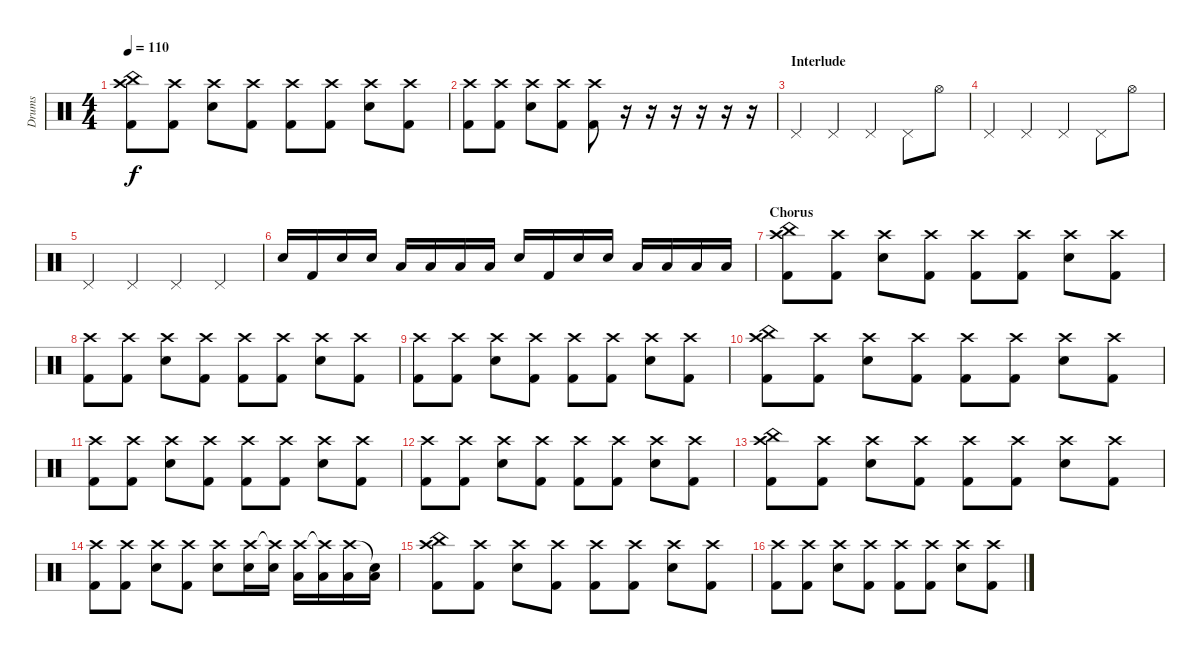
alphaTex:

\track ("Drums" "Drums") {instrument percussion}
\staff {score}
\articulation defaults
\ts (4 4)
\tempo 110
\clef neutral
\ks c
("Crash high (hit)" "China (hit)" "Kick (hit) 2").8{dy f} ("Crash high (hit)" "Kick (hit) 2").8 ("Crash high (hit)" "Snare (hit) 2").8 ("Crash high (hit)" "Kick (hit) 2").8 ("Crash high (hit)" "Kick (hit) 2").8 ("Crash high (hit)" "Kick (hit) 2").8 ("Crash high (hit)" "Snare (hit) 2").8 ("Crash high (hit)" "Kick (hit) 2").8 |
("Crash high (hit)" "Kick (hit) 2").8 ("Crash high (hit)" "Kick (hit) 2").8 ("Crash high (hit)" "Snare (hit) 2").8 ("Crash high (hit)" "Kick (hit) 2").8 ("Crash high (hit)" "Kick (hit) 2").8 r.16 r.16 r.16 r.16 r.16 r.16 |
\section ("" "Interlude")
"Pedal Hi-Hat (hit)".4 "Pedal Hi-Hat (hit)".4 "Pedal Hi-Hat (hit)".4 "Pedal Hi-Hat (hit)".8 "Hi-Hat (open)".8 |
"Pedal Hi-Hat (hit)".4 "Pedal Hi-Hat (hit)".4 "Pedal Hi-Hat (hit)".4 "Pedal Hi-Hat (hit)".8 "Hi-Hat (open)".8 |
"Pedal Hi-Hat (hit)".4 "Pedal Hi-Hat (hit)".4 "Pedal Hi-Hat (hit)".4 "Pedal Hi-Hat (hit)".4 |
"Snare (hit) 2".16 "Kick (hit) 2".16 "Snare (hit) 2".16 "Snare (hit) 2".16 "Low Floor Tom (hit)".16 "Low Floor Tom (hit)".16 "Low Floor Tom (hit)".16 "Low Floor Tom (hit)".16 "Snare (hit) 2".16 "Kick (hit) 2".16 "Snare (hit) 2".16 "Snare (hit) 2".16 "Low Floor Tom (hit)".16 "Low Floor Tom (hit)".16 "Low Floor Tom (hit)".16 "Low Floor Tom (hit)".16 |
\section ("" "Chorus")
("Crash high (hit)" "China (hit)" "Kick (hit) 2").8 ("Crash high (hit)" "Kick (hit) 2").8 ("Crash high (hit)" "Snare (hit) 2").8 ("Crash high (hit)" "Kick (hit) 2").8 ("Crash high (hit)" "Kick (hit) 2").8 ("Crash high (hit)" "Kick (hit) 2").8 ("Crash high (hit)" "Snare (hit) 2").8 ("Crash high (hit)" "Kick (hit) 2").8 |
("Crash high (hit)" "Kick (hit) 2").8 ("Crash high (hit)" "Kick (hit) 2").8 ("Crash high (hit)" "Snare (hit) 2").8 ("Crash high (hit)" "Kick (hit) 2").8 ("Crash high (hit)" "Kick (hit) 2").8 ("Crash high (hit)" "Kick (hit) 2").8 ("Crash high (hit)" "Snare (hit) 2").8 ("Crash high (hit)" "Kick (hit) 2").8 |
("Crash high (hit)" "Kick (hit) 2").8 ("Crash high (hit)" "Kick (hit) 2").8 ("Crash high (hit)" "Snare (hit) 2").8 ("Crash high (hit)" "Kick (hit) 2").8 ("Crash high (hit)" "Kick (hit) 2").8 ("Crash high (hit)" "Kick (hit) 2").8 ("Crash high (hit)" "Snare (hit) 2").8 ("Crash high (hit)" "Kick (hit) 2").8 |
("Crash high (hit)" "China (hit)" "Kick (hit) 2").8 ("Crash high (hit)" "Kick (hit) 2").8 ("Crash high (hit)" "Snare (hit) 2").8 ("Crash high (hit)" "Kick (hit) 2").8 ("Crash high (hit)" "Kick (hit) 2").8 ("Crash high (hit)" "Kick (hit) 2").8 ("Crash high (hit)" "Snare (hit) 2").8 ("Crash high (hit)" "Kick (hit) 2").8 |
("Crash high (hit)" "Kick (hit) 2").8 ("Crash high (hit)" "Kick (hit) 2").8 ("Crash high (hit)" "Snare (hit) 2").8 ("Crash high (hit)" "Kick (hit) 2").8 ("Crash high (hit)" "Kick (hit) 2").8 ("Crash high (hit)" "Kick (hit) 2").8 ("Crash high (hit)" "Snare (hit) 2").8 ("Crash high (hit)" "Kick (hit) 2").8 |
("Crash high (hit)" "Kick (hit) 2").8 ("Crash high (hit)" "Kick (hit) 2").8 ("Crash high (hit)" "Snare (hit) 2").8 ("Crash high (hit)" "Kick (hit) 2").8 ("Crash high (hit)" "Kick (hit) 2").8 ("Crash high (hit)" "Kick (hit) 2").8 ("Crash high (hit)" "Snare (hit) 2").8 ("Crash high (hit)" "Kick (hit) 2").8 |
("Crash high (hit)" "China (hit)" "Kick (hit) 2").8 ("Crash high (hit)" "Kick (hit) 2").8 ("Crash high (hit)" "Snare (hit) 2").8 ("Crash high (hit)" "Kick (hit) 2").8 ("Crash high (hit)" "Kick (hit) 2").8 ("Crash high (hit)" "Kick (hit) 2").8 ("Crash high (hit)" "Snare (hit) 2").8 ("Crash high (hit)" "Kick (hit) 2").8 |
("Crash high (hit)" "Kick (hit) 2").8 ("Crash high (hit)" "Kick (hit) 2").8 ("Crash high (hit)" "Snare (hit) 2").8 ("Crash high (hit)" "Kick (hit) 2").8 ("Crash high (hit)" "Snare (hit) 2").8 ("Crash high (hit)" "Snare (hit) 2").16 ("Crash high (hit)"{t} "Snare (hit) 2").16 ("Crash high (hit)" "Low Tom (hit)").16 ("Crash high (hit)"{t} "Low Tom (hit)").16 ("Crash high (hit)" "Low Floor Tom (hit)").16 ("Snare (hit)"{t} "Low Floor Tom (hit)").16 |
("Crash high (hit)" "China (hit)" "Kick (hit) 2").8 ("Crash high (hit)" "Kick (hit) 2").8 ("Crash high (hit)" "Snare (hit) 2").8 ("Crash high (hit)" "Kick (hit) 2").8 ("Crash high (hit)" "Kick (hit) 2").8 ("Crash high (hit)" "Kick (hit) 2").8 ("Crash high (hit)" "Snare (hit) 2").8 ("Crash high (hit)" "Kick (hit) 2").8 |
("Crash high (hit)" "Kick (hit) 2").8 ("Crash high (hit)" "Kick (hit) 2").8 ("Crash high (hit)" "Snare (hit) 2").8 ("Crash high (hit)" "Kick (hit) 2").8 ("Crash high (hit)" "Kick (hit) 2").8 ("Crash high (hit)" "Kick (hit) 2").8 ("Crash high (hit)" "Snare (hit) 2").8 ("Crash high (hit)" "Kick (hit) 2").8
